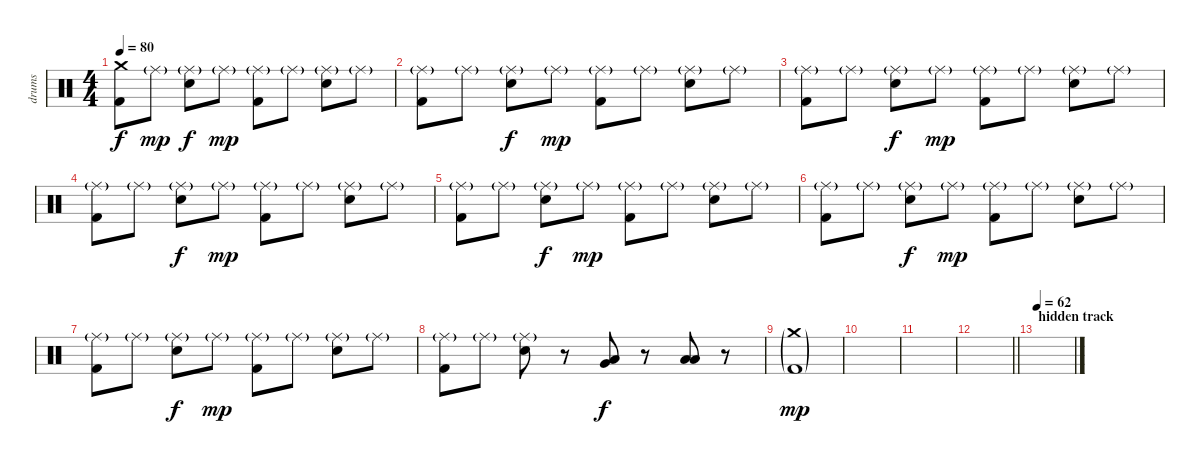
\track ("drums" "drums") {instrument percussion}
\staff {score}
\articulation defaults
\ts (4 4)
\tempo 80
\clef neutral
\ks c
("Kick (hit) 2" "Crash medium (hit)").8{dy f} "Ride (middle)"{g}.8{dy mp} ("Snare (hit) 2" "Ride (middle)"{g}).8{dy f} "Ride (middle)"{g}.8{dy mp} ("Kick (hit) 2" "Ride (middle)"{g}).8 "Ride (middle)"{g}.8 ("Snare (hit) 2" "Ride (middle)"{g}).8 "Ride (middle)"{g}.8 |
("Kick (hit) 2" "Ride (middle)"{g}).8 "Ride (middle)"{g}.8 ("Snare (hit) 2" "Ride (middle)"{g}).8{dy f} "Ride (middle)"{g}.8{dy mp} ("Kick (hit) 2" "Ride (middle)"{g}).8 "Ride (middle)"{g}.8 ("Snare (hit) 2" "Ride (middle)"{g}).8 "Ride (middle)"{g}.8 |
("Kick (hit) 2" "Ride (middle)"{g}).8 "Ride (middle)"{g}.8 ("Snare (hit) 2" "Ride (middle)"{g}).8{dy f} "Ride (middle)"{g}.8{dy mp} ("Kick (hit) 2" "Ride (middle)"{g}).8 "Ride (middle)"{g}.8 ("Snare (hit) 2" "Ride (middle)"{g}).8 "Ride (middle)"{g}.8 |
("Kick (hit) 2" "Ride (middle)"{g}).8 "Ride (middle)"{g}.8 ("Snare (hit) 2" "Ride (middle)"{g}).8{dy f} "Ride (middle)"{g}.8{dy mp} ("Kick (hit) 2" "Ride (middle)"{g}).8 "Ride (middle)"{g}.8 ("Snare (hit) 2" "Ride (middle)"{g}).8 "Ride (middle)"{g}.8 |
("Kick (hit) 2" "Ride (middle)"{g}).8 "Ride (middle)"{g}.8 ("Snare (hit) 2" "Ride (middle)"{g}).8{dy f} "Ride (middle)"{g}.8{dy mp} ("Kick (hit) 2" "Ride (middle)"{g}).8 "Ride (middle)"{g}.8 ("Snare (hit) 2" "Ride (middle)"{g}).8 "Ride (middle)"{g}.8 |
("Kick (hit) 2" "Ride (middle)"{g}).8 "Ride (middle)"{g}.8 ("Snare (hit) 2" "Ride (middle)"{g}).8{dy f} "Ride (middle)"{g}.8{dy mp} ("Kick (hit) 2" "Ride (middle)"{g}).8 "Ride (middle)"{g}.8 ("Snare (hit) 2" "Ride (middle)"{g}).8 "Ride (middle)"{g}.8 |
("Kick (hit) 2" "Ride (middle)"{g}).8 "Ride (middle)"{g}.8 ("Snare (hit) 2" "Ride (middle)"{g}).8{dy f} "Ride (middle)"{g}.8{dy mp} ("Kick (hit) 2" "Ride (middle)"{g}).8 "Ride (middle)"{g}.8 ("Snare (hit) 2" "Ride (middle)"{g}).8 "Ride (middle)"{g}.8 |
("Kick (hit) 2" "Ride (middle)"{g}).8 "Ride (middle)"{g}.8 ("Snare (hit) 2" "Ride (middle)"{g}).8 r.8 ("Very Low Tom (hit)" "Low Floor Tom (hit)").8{dy f} r.8 ("Low Tom (hit)" "Low Floor Tom (hit)").8 r.8 |
("Crash medium (hit)"{g} "Kick (hit) 2"{g}).1{dy mp} |
|
|
\barLineRight lightlight
|
\section ("" "hidden track")
\tempo 62
